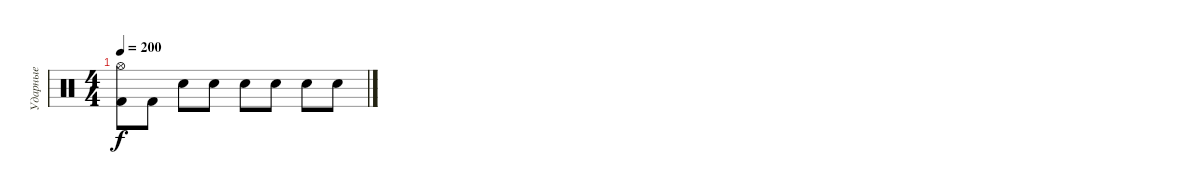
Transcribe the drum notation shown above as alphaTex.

\track ("Ударные" "Ударные") {instrument percussion}
\staff {score}
\articulation defaults
\ts (4 4)
\tempo 200
\clef neutral
\ks c
("Hi-Hat (open)" "Kick (hit) 2").8{dy f} "Kick (hit) 2".8 "Snare (hit) 2".8 "Snare (hit) 2".8 "Snare (hit) 2".8 "Snare (hit) 2".8 "Snare (hit) 2".8 "Snare (hit) 2".8
